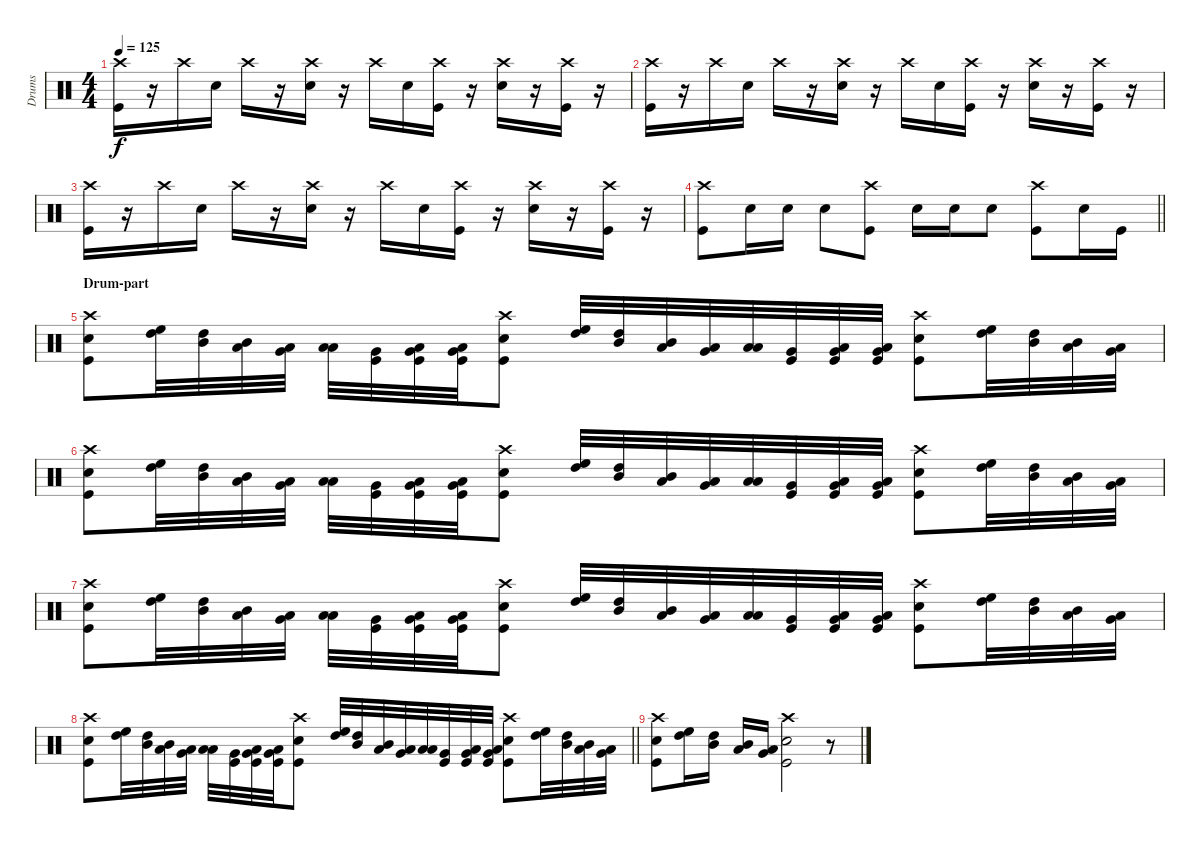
\track ("Drums" "Drums") {instrument percussion}
\staff {score}
\articulation defaults
\ts (4 4)
\tempo 125
\clef neutral
\ks c
("Crash high (hit)" "Kick (hit)").16{dy f} r.16 "Crash high (hit)".16 "Snare (hit) 2".16 "Crash high (hit)".16 r.16 ("Crash high (hit)" "Snare (hit) 2").16 r.16 "Crash high (hit)".16 "Snare (hit) 2".16 ("Crash high (hit)" "Kick (hit)").16 r.16 ("Crash high (hit)" "Snare (hit) 2").16 r.16 ("Crash high (hit)" "Kick (hit)").16 r.16 |
("Crash high (hit)" "Kick (hit)").16 r.16 "Crash high (hit)".16 "Snare (hit) 2".16 "Crash high (hit)".16 r.16 ("Crash high (hit)" "Snare (hit) 2").16 r.16 "Crash high (hit)".16 "Snare (hit) 2".16 ("Crash high (hit)" "Kick (hit)").16 r.16 ("Crash high (hit)" "Snare (hit) 2").16 r.16 ("Crash high (hit)" "Kick (hit)").16 r.16 |
("Crash high (hit)" "Kick (hit)").16 r.16 "Crash high (hit)".16 "Snare (hit) 2".16 "Crash high (hit)".16 r.16 ("Crash high (hit)" "Snare (hit) 2").16 r.16 "Crash high (hit)".16 "Snare (hit) 2".16 ("Crash high (hit)" "Kick (hit)").16 r.16 ("Crash high (hit)" "Snare (hit) 2").16 r.16 ("Crash high (hit)" "Kick (hit)").16 r.16 |
\barLineRight lightlight
("Kick (hit)" "Crash high (hit)").8 "Snare (hit) 2".16 "Snare (hit) 2".16 "Snare (hit) 2".8 ("Kick (hit)" "Crash high (hit)").8 "Snare (hit) 2".16 "Snare (hit) 2".16 "Snare (hit) 2".8 ("Kick (hit)" "Crash high (hit)").8 "Snare (hit) 2".16 "Kick (hit)".16 |
\section ("" "Drum-part")
("Kick (hit)" "Snare (hit) 2" "Crash high (hit)").8 ("High Tom (hit)" "High Floor Tom (hit)").32 ("High Tom (hit)" "Mid Tom (hit)").32 ("Mid Tom (hit)" "Low Tom (hit)").32 ("Low Tom (hit)" "Very Low Tom (hit)").32 ("Low Floor Tom (hit)" "Low Floor Tom (hit)").32 ("Kick (hit)" "Very Low Tom (hit)").32 ("Kick (hit)" "Very Low Tom (hit)" "Low Floor Tom (hit)").32 ("Kick (hit)" "Low Floor Tom (hit)" "Very Low Tom (hit)").32 ("Kick (hit)" "Snare (hit) 2" "Crash high (hit)").8 ("High Tom (hit)" "High Floor Tom (hit)").32 ("High Tom (hit)" "Mid Tom (hit)").32 ("Mid Tom (hit)" "Low Tom (hit)").32 ("Low Tom (hit)" "Very Low Tom (hit)").32 ("Low Floor Tom (hit)" "Low Floor Tom (hit)").32 ("Kick (hit)" "Very Low Tom (hit)").32 ("Kick (hit)" "Very Low Tom (hit)" "Low Floor Tom (hit)").32 ("Kick (hit)" "Low Floor Tom (hit)" "Very Low Tom (hit)").32 ("Kick (hit)" "Snare (hit) 2" "Crash high (hit)").8 ("High Tom (hit)" "High Floor Tom (hit)").32 ("High Tom (hit)" "Mid Tom (hit)").32 ("Mid Tom (hit)" "Low Tom (hit)").32 ("Low Tom (hit)" "Very Low Tom (hit)").32 |
("Kick (hit)" "Snare (hit) 2" "Crash high (hit)").8 ("High Tom (hit)" "High Floor Tom (hit)").32 ("High Tom (hit)" "Mid Tom (hit)").32 ("Mid Tom (hit)" "Low Tom (hit)").32 ("Low Tom (hit)" "Very Low Tom (hit)").32 ("Low Floor Tom (hit)" "Low Floor Tom (hit)").32 ("Kick (hit)" "Very Low Tom (hit)").32 ("Kick (hit)" "Very Low Tom (hit)" "Low Floor Tom (hit)").32 ("Kick (hit)" "Low Floor Tom (hit)" "Very Low Tom (hit)").32 ("Kick (hit)" "Snare (hit) 2" "Crash high (hit)").8 ("High Tom (hit)" "High Floor Tom (hit)").32 ("High Tom (hit)" "Mid Tom (hit)").32 ("Mid Tom (hit)" "Low Tom (hit)").32 ("Low Tom (hit)" "Very Low Tom (hit)").32 ("Low Floor Tom (hit)" "Low Floor Tom (hit)").32 ("Kick (hit)" "Very Low Tom (hit)").32 ("Kick (hit)" "Very Low Tom (hit)" "Low Floor Tom (hit)").32 ("Kick (hit)" "Low Floor Tom (hit)" "Very Low Tom (hit)").32 ("Kick (hit)" "Snare (hit) 2" "Crash high (hit)").8 ("High Tom (hit)" "High Floor Tom (hit)").32 ("High Tom (hit)" "Mid Tom (hit)").32 ("Mid Tom (hit)" "Low Tom (hit)").32 ("Low Tom (hit)" "Very Low Tom (hit)").32 |
("Kick (hit)" "Snare (hit) 2" "Crash high (hit)").8 ("High Tom (hit)" "High Floor Tom (hit)").32 ("High Tom (hit)" "Mid Tom (hit)").32 ("Mid Tom (hit)" "Low Tom (hit)").32 ("Low Tom (hit)" "Very Low Tom (hit)").32 ("Low Floor Tom (hit)" "Low Floor Tom (hit)").32 ("Kick (hit)" "Very Low Tom (hit)").32 ("Kick (hit)" "Very Low Tom (hit)" "Low Floor Tom (hit)").32 ("Kick (hit)" "Low Floor Tom (hit)" "Very Low Tom (hit)").32 ("Kick (hit)" "Snare (hit) 2" "Crash high (hit)").8 ("High Tom (hit)" "High Floor Tom (hit)").32 ("High Tom (hit)" "Mid Tom (hit)").32 ("Mid Tom (hit)" "Low Tom (hit)").32 ("Low Tom (hit)" "Very Low Tom (hit)").32 ("Low Floor Tom (hit)" "Low Floor Tom (hit)").32 ("Kick (hit)" "Very Low Tom (hit)").32 ("Kick (hit)" "Very Low Tom (hit)" "Low Floor Tom (hit)").32 ("Kick (hit)" "Low Floor Tom (hit)" "Very Low Tom (hit)").32 ("Kick (hit)" "Snare (hit) 2" "Crash high (hit)").8 ("High Tom (hit)" "High Floor Tom (hit)").32 ("High Tom (hit)" "Mid Tom (hit)").32 ("Mid Tom (hit)" "Low Tom (hit)").32 ("Low Tom (hit)" "Very Low Tom (hit)").32 |
\barLineRight lightlight
("Kick (hit)" "Snare (hit) 2" "Crash high (hit)").8 ("High Tom (hit)" "High Floor Tom (hit)").32 ("High Tom (hit)" "Mid Tom (hit)").32 ("Mid Tom (hit)" "Low Tom (hit)").32 ("Low Tom (hit)" "Very Low Tom (hit)").32 ("Low Floor Tom (hit)" "Low Floor Tom (hit)").32 ("Kick (hit)" "Very Low Tom (hit)").32 ("Kick (hit)" "Very Low Tom (hit)" "Low Floor Tom (hit)").32 ("Kick (hit)" "Low Floor Tom (hit)" "Very Low Tom (hit)").32 ("Kick (hit)" "Snare (hit) 2" "Crash high (hit)").8 ("High Tom (hit)" "High Floor Tom (hit)").32 ("High Tom (hit)" "Mid Tom (hit)").32 ("Mid Tom (hit)" "Low Tom (hit)").32 ("Low Tom (hit)" "Very Low Tom (hit)").32 ("Low Floor Tom (hit)" "Low Floor Tom (hit)").32 ("Kick (hit)" "Very Low Tom (hit)").32 ("Kick (hit)" "Very Low Tom (hit)" "Low Floor Tom (hit)").32 ("Kick (hit)" "Low Floor Tom (hit)" "Very Low Tom (hit)").32 ("Kick (hit)" "Snare (hit) 2" "Crash high (hit)").8 ("High Tom (hit)" "High Floor Tom (hit)").32 ("High Tom (hit)" "Mid Tom (hit)").32 ("Mid Tom (hit)" "Low Tom (hit)").32 ("Low Tom (hit)" "Very Low Tom (hit)").32 |
("Kick (hit)" "Snare (hit) 2" "Crash high (hit)").8 ("High Floor Tom (hit)" "High Tom (hit)").16 ("Mid Tom (hit)" "High Tom (hit)").16 ("Mid Tom (hit)" "Low Tom (hit)").16 ("Low Tom (hit)" "Very Low Tom (hit)").16 ("Snare (hit) 2" "Crash high (hit)" "Kick (hit)").2 r.8
